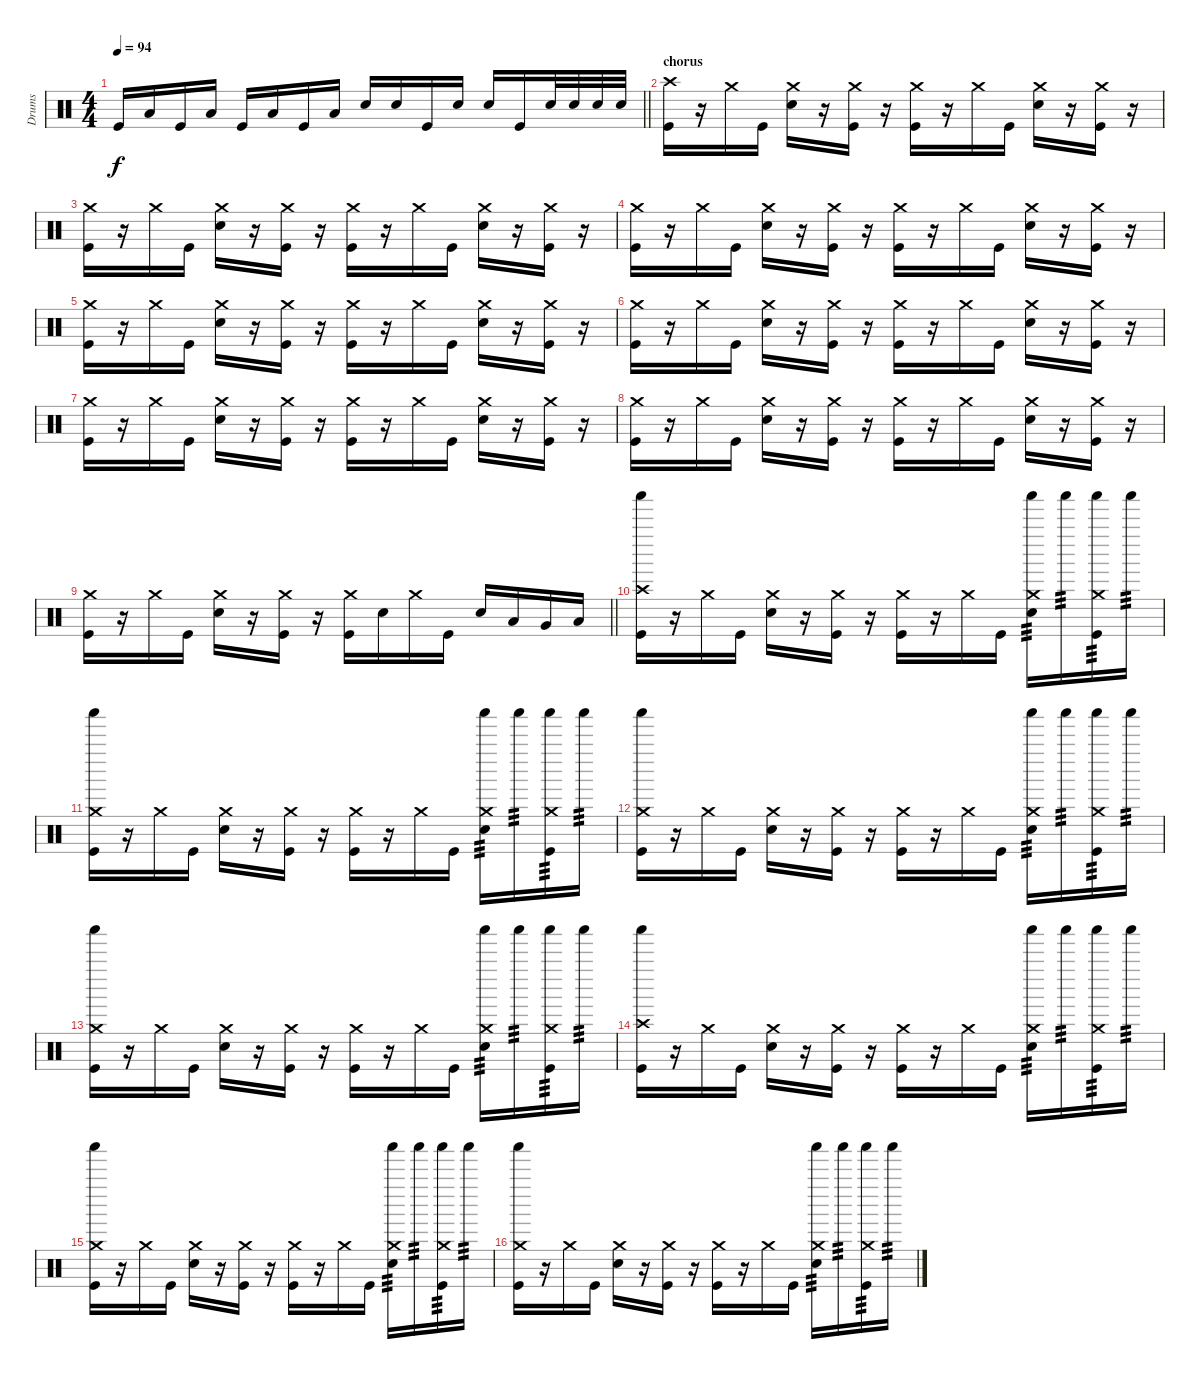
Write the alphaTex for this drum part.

\track ("Drums" "Drums") {instrument percussion}
\staff {score}
\articulation defaults
\ts (4 4)
\tempo 94
\clef neutral
\barLineRight lightlight
\ks c "Kick (hit)".16{dy f} "Low Floor Tom (hit)".16 "Kick (hit)".16 "Low Floor Tom (hit)".16 "Kick (hit)".16 "Low Floor Tom (hit)".16 "Kick (hit)".16 "Low Floor Tom (hit)".16 "Electric Snare (hit)".16 "Electric Snare (hit)".16 "Kick (hit)".16 "Electric Snare (hit)".16 "Electric Snare (hit)".16 "Kick (hit)".16 "Electric Snare (hit)".32 "Electric Snare (hit)".32 "Electric Snare (hit)".32 "Electric Snare (hit)".32
|
\section ("" "chorus")
("Crash high (hit)" "Kick (hit)").16 r.16 "Crash medium (hit)".16 "Kick (hit)".16 ("Crash medium (hit)" "Electric Snare (hit)").16 r.16 ("Crash medium (hit)" "Kick (hit)").16 r.16 ("Crash medium (hit)" "Kick (hit)").16 r.16 "Crash medium (hit)".16 "Kick (hit)".16 ("Crash medium (hit)" "Electric Snare (hit)").16 r.16 ("Crash medium (hit)" "Kick (hit)").16 r.16 |
("Crash medium (hit)" "Kick (hit)").16 r.16 "Crash medium (hit)".16 "Kick (hit)".16 ("Crash medium (hit)" "Electric Snare (hit)").16 r.16 ("Crash medium (hit)" "Kick (hit)").16 r.16 ("Crash medium (hit)" "Kick (hit)").16 r.16 "Crash medium (hit)".16 "Kick (hit)".16 ("Crash medium (hit)" "Electric Snare (hit)").16 r.16 ("Crash medium (hit)" "Kick (hit)").16 r.16 |
("Crash medium (hit)" "Kick (hit)").16 r.16 "Crash medium (hit)".16 "Kick (hit)".16 ("Crash medium (hit)" "Electric Snare (hit)").16 r.16 ("Crash medium (hit)" "Kick (hit)").16 r.16 ("Crash medium (hit)" "Kick (hit)").16 r.16 "Crash medium (hit)".16 "Kick (hit)".16 ("Crash medium (hit)" "Electric Snare (hit)").16 r.16 ("Crash medium (hit)" "Kick (hit)").16 r.16 |
("Crash medium (hit)" "Kick (hit)").16 r.16 "Crash medium (hit)".16 "Kick (hit)".16 ("Crash medium (hit)" "Electric Snare (hit)").16 r.16 ("Crash medium (hit)" "Kick (hit)").16 r.16 ("Crash medium (hit)" "Kick (hit)").16 r.16 "Crash medium (hit)".16 "Kick (hit)".16 ("Crash medium (hit)" "Electric Snare (hit)").16 r.16 ("Crash medium (hit)" "Kick (hit)").16 r.16 |
("Crash medium (hit)" "Kick (hit)").16 r.16 "Crash medium (hit)".16 "Kick (hit)".16 ("Crash medium (hit)" "Electric Snare (hit)").16 r.16 ("Crash medium (hit)" "Kick (hit)").16 r.16 ("Crash medium (hit)" "Kick (hit)").16 r.16 "Crash medium (hit)".16 "Kick (hit)".16 ("Crash medium (hit)" "Electric Snare (hit)").16 r.16 ("Crash medium (hit)" "Kick (hit)").16 r.16 |
("Crash medium (hit)" "Kick (hit)").16 r.16 "Crash medium (hit)".16 "Kick (hit)".16 ("Crash medium (hit)" "Electric Snare (hit)").16 r.16 ("Crash medium (hit)" "Kick (hit)").16 r.16 ("Crash medium (hit)" "Kick (hit)").16 r.16 "Crash medium (hit)".16 "Kick (hit)".16 ("Crash medium (hit)" "Electric Snare (hit)").16 r.16 ("Crash medium (hit)" "Kick (hit)").16 r.16 |
("Crash medium (hit)" "Kick (hit)").16 r.16 "Crash medium (hit)".16 "Kick (hit)".16 ("Crash medium (hit)" "Electric Snare (hit)").16 r.16 ("Crash medium (hit)" "Kick (hit)").16 r.16 ("Crash medium (hit)" "Kick (hit)").16 r.16 "Crash medium (hit)".16 "Kick (hit)".16 ("Crash medium (hit)" "Electric Snare (hit)").16 r.16 ("Crash medium (hit)" "Kick (hit)").16 r.16 |
\barLineRight lightlight
("Crash medium (hit)" "Kick (hit)").16 r.16 "Crash medium (hit)".16 "Kick (hit)".16 ("Crash medium (hit)" "Electric Snare (hit)").16 r.16 ("Crash medium (hit)" "Kick (hit)").16 r.16 ("Crash medium (hit)" "Kick (hit)").16 "Electric Snare (hit)".16 "Crash medium (hit)".16 "Kick (hit)".16 "Electric Snare (hit)".16 "Low Tom (hit)".16 "Very Low Tom (hit)".16 "Low Floor Tom (hit)".16 |
("Shaker (hit)" "Crash high (hit)" "Kick (hit)").16 r.16 "Crash medium (hit)".16 "Kick (hit)".16 ("Crash medium (hit)" "Electric Snare (hit)").16 r.16 ("Crash medium (hit)" "Kick (hit)").16 r.16 ("Crash medium (hit)" "Kick (hit)").16 r.16 "Crash medium (hit)".16 "Kick (hit)".16 ("Shaker (hit)" "Crash medium (hit)" "Electric Snare (hit)").16{tp 3} "Shaker (hit)".16{tp 3} ("Shaker (hit)" "Crash medium (hit)" "Kick (hit)").16{tp 3} "Shaker (hit)".16{tp 3} |
("Shaker (hit)" "Crash medium (hit)" "Kick (hit)").16 r.16 "Crash medium (hit)".16 "Kick (hit)".16 ("Crash medium (hit)" "Electric Snare (hit)").16 r.16 ("Crash medium (hit)" "Kick (hit)").16 r.16 ("Crash medium (hit)" "Kick (hit)").16 r.16 "Crash medium (hit)".16 "Kick (hit)".16 ("Shaker (hit)" "Crash medium (hit)" "Electric Snare (hit)").16{tp 3} "Shaker (hit)".16{tp 3} ("Shaker (hit)" "Crash medium (hit)" "Kick (hit)").16{tp 3} "Shaker (hit)".16{tp 3} |
("Shaker (hit)" "Crash medium (hit)" "Kick (hit)").16 r.16 "Crash medium (hit)".16 "Kick (hit)".16 ("Crash medium (hit)" "Electric Snare (hit)").16 r.16 ("Crash medium (hit)" "Kick (hit)").16 r.16 ("Crash medium (hit)" "Kick (hit)").16 r.16 "Crash medium (hit)".16 "Kick (hit)".16 ("Shaker (hit)" "Crash medium (hit)" "Electric Snare (hit)").16{tp 3} "Shaker (hit)".16{tp 3} ("Shaker (hit)" "Crash medium (hit)" "Kick (hit)").16{tp 3} "Shaker (hit)".16{tp 3} |
("Shaker (hit)" "Crash medium (hit)" "Kick (hit)").16 r.16 "Crash medium (hit)".16 "Kick (hit)".16 ("Crash medium (hit)" "Electric Snare (hit)").16 r.16 ("Crash medium (hit)" "Kick (hit)").16 r.16 ("Crash medium (hit)" "Kick (hit)").16 r.16 "Crash medium (hit)".16 "Kick (hit)".16 ("Shaker (hit)" "Crash medium (hit)" "Electric Snare (hit)").16{tp 3} "Shaker (hit)".16{tp 3} ("Shaker (hit)" "Crash medium (hit)" "Kick (hit)").16{tp 3} "Shaker (hit)".16{tp 3} |
("Shaker (hit)" "Crash high (hit)" "Kick (hit)").16 r.16 "Crash medium (hit)".16 "Kick (hit)".16 ("Crash medium (hit)" "Electric Snare (hit)").16 r.16 ("Crash medium (hit)" "Kick (hit)").16 r.16 ("Crash medium (hit)" "Kick (hit)").16 r.16 "Crash medium (hit)".16 "Kick (hit)".16 ("Shaker (hit)" "Crash medium (hit)" "Electric Snare (hit)").16{tp 3} "Shaker (hit)".16{tp 3} ("Shaker (hit)" "Crash medium (hit)" "Kick (hit)").16{tp 3} "Shaker (hit)".16{tp 3} |
("Shaker (hit)" "Crash medium (hit)" "Kick (hit)").16 r.16 "Crash medium (hit)".16 "Kick (hit)".16 ("Crash medium (hit)" "Electric Snare (hit)").16 r.16 ("Crash medium (hit)" "Kick (hit)").16 r.16 ("Crash medium (hit)" "Kick (hit)").16 r.16 "Crash medium (hit)".16 "Kick (hit)".16 ("Shaker (hit)" "Crash medium (hit)" "Electric Snare (hit)").16{tp 3} "Shaker (hit)".16{tp 3} ("Shaker (hit)" "Crash medium (hit)" "Kick (hit)").16{tp 3} "Shaker (hit)".16{tp 3} |
("Shaker (hit)" "Crash medium (hit)" "Kick (hit)").16 r.16 "Crash medium (hit)".16 "Kick (hit)".16 ("Crash medium (hit)" "Electric Snare (hit)").16 r.16 ("Crash medium (hit)" "Kick (hit)").16 r.16 ("Crash medium (hit)" "Kick (hit)").16 r.16 "Crash medium (hit)".16 "Kick (hit)".16 ("Shaker (hit)" "Crash medium (hit)" "Electric Snare (hit)").16{tp 3} "Shaker (hit)".16{tp 3} ("Shaker (hit)" "Crash medium (hit)" "Kick (hit)").16{tp 3} "Shaker (hit)".16{tp 3}
